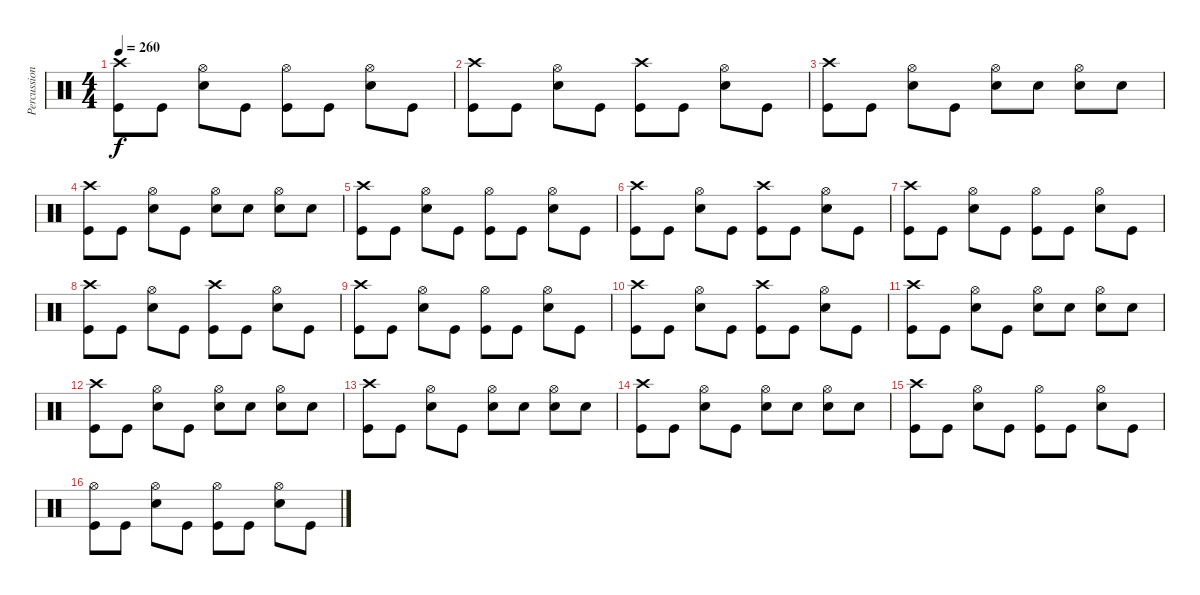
\track ("Percussion" "Percussion") {instrument percussion}
\staff {score}
\articulation defaults
\ts (4 4)
\tempo 260
\clef neutral
\ks c
("Crash high (hit)" "Kick (hit)").8{dy f} "Kick (hit)".8 ("Hi-Hat (open)" "Snare (hit) 2").8 "Kick (hit)".8 ("Hi-Hat (open)" "Kick (hit)").8 "Kick (hit)".8 ("Hi-Hat (open)" "Snare (hit) 2").8 "Kick (hit)".8 |
("Crash high (hit)" "Kick (hit)").8 "Kick (hit)".8 ("Hi-Hat (open)" "Snare (hit) 2").8 "Kick (hit)".8 ("Crash high (hit)" "Kick (hit)").8 "Kick (hit)".8 ("Hi-Hat (open)" "Snare (hit) 2").8 "Kick (hit)".8 |
("Crash high (hit)" "Kick (hit)").8 "Kick (hit)".8 ("Hi-Hat (open)" "Snare (hit) 2").8 "Kick (hit)".8 ("Hi-Hat (open)" "Snare (hit) 2").8 "Snare (hit) 2".8 ("Hi-Hat (open)" "Snare (hit) 2").8 "Snare (hit) 2".8 |
("Crash high (hit)" "Kick (hit)").8 "Kick (hit)".8 ("Hi-Hat (open)" "Snare (hit) 2").8 "Kick (hit)".8 ("Hi-Hat (open)" "Snare (hit) 2").8 "Snare (hit) 2".8 ("Hi-Hat (open)" "Snare (hit) 2").8 "Snare (hit) 2".8 |
("Crash high (hit)" "Kick (hit)").8 "Kick (hit)".8 ("Hi-Hat (open)" "Snare (hit) 2").8 "Kick (hit)".8 ("Hi-Hat (open)" "Kick (hit)").8 "Kick (hit)".8 ("Hi-Hat (open)" "Snare (hit) 2").8 "Kick (hit)".8 |
("Crash high (hit)" "Kick (hit)").8 "Kick (hit)".8 ("Hi-Hat (open)" "Snare (hit) 2").8 "Kick (hit)".8 ("Crash high (hit)" "Kick (hit)").8 "Kick (hit)".8 ("Hi-Hat (open)" "Snare (hit) 2").8 "Kick (hit)".8 |
("Crash high (hit)" "Kick (hit)").8 "Kick (hit)".8 ("Hi-Hat (open)" "Snare (hit) 2").8 "Kick (hit)".8 ("Hi-Hat (open)" "Kick (hit)").8 "Kick (hit)".8 ("Hi-Hat (open)" "Snare (hit) 2").8 "Kick (hit)".8 |
("Crash high (hit)" "Kick (hit)").8 "Kick (hit)".8 ("Hi-Hat (open)" "Snare (hit) 2").8 "Kick (hit)".8 ("Crash high (hit)" "Kick (hit)").8 "Kick (hit)".8 ("Hi-Hat (open)" "Snare (hit) 2").8 "Kick (hit)".8 |
("Crash high (hit)" "Kick (hit)").8 "Kick (hit)".8 ("Hi-Hat (open)" "Snare (hit) 2").8 "Kick (hit)".8 ("Hi-Hat (open)" "Kick (hit)").8 "Kick (hit)".8 ("Hi-Hat (open)" "Snare (hit) 2").8 "Kick (hit)".8 |
("Crash high (hit)" "Kick (hit)").8 "Kick (hit)".8 ("Hi-Hat (open)" "Snare (hit) 2").8 "Kick (hit)".8 ("Crash high (hit)" "Kick (hit)").8 "Kick (hit)".8 ("Hi-Hat (open)" "Snare (hit) 2").8 "Kick (hit)".8 |
("Crash high (hit)" "Kick (hit)").8 "Kick (hit)".8 ("Hi-Hat (open)" "Snare (hit) 2").8 "Kick (hit)".8 ("Hi-Hat (open)" "Snare (hit) 2").8 "Snare (hit) 2".8 ("Hi-Hat (open)" "Snare (hit) 2").8 "Snare (hit) 2".8 |
("Crash high (hit)" "Kick (hit)").8 "Kick (hit)".8 ("Hi-Hat (open)" "Snare (hit) 2").8 "Kick (hit)".8 ("Hi-Hat (open)" "Snare (hit) 2").8 "Snare (hit) 2".8 ("Hi-Hat (open)" "Snare (hit) 2").8 "Snare (hit) 2".8 |
("Crash high (hit)" "Kick (hit)").8 "Kick (hit)".8 ("Hi-Hat (open)" "Snare (hit) 2").8 "Kick (hit)".8 ("Hi-Hat (open)" "Snare (hit) 2").8 "Snare (hit) 2".8 ("Hi-Hat (open)" "Snare (hit) 2").8 "Snare (hit) 2".8 |
("Crash high (hit)" "Kick (hit)").8 "Kick (hit)".8 ("Hi-Hat (open)" "Snare (hit) 2").8 "Kick (hit)".8 ("Hi-Hat (open)" "Snare (hit) 2").8 "Snare (hit) 2".8 ("Hi-Hat (open)" "Snare (hit) 2").8 "Snare (hit) 2".8 |
("Crash high (hit)" "Kick (hit)").8 "Kick (hit)".8 ("Hi-Hat (open)" "Snare (hit) 2").8 "Kick (hit)".8 ("Hi-Hat (open)" "Kick (hit)").8 "Kick (hit)".8 ("Hi-Hat (open)" "Snare (hit) 2").8 "Kick (hit)".8 |
("Hi-Hat (open)" "Kick (hit)").8 "Kick (hit)".8 ("Hi-Hat (open)" "Snare (hit) 2").8 "Kick (hit)".8 ("Hi-Hat (open)" "Kick (hit)").8 "Kick (hit)".8 ("Hi-Hat (open)" "Snare (hit) 2").8 "Kick (hit)".8
